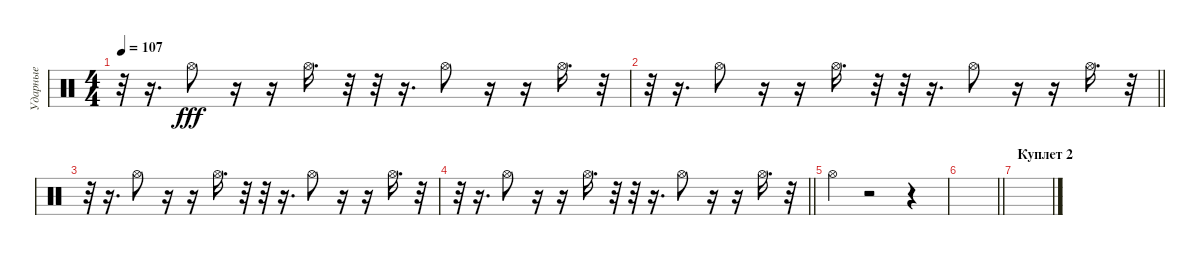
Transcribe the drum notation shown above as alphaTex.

\track ("Ударные" "Ударные") {solo instrument percussion}
\staff {score}
\articulation defaults
\ts (4 4)
\tempo 107
\clef neutral
\ks c
r.32{dy fff} r.16{d} "Hi-Hat (open)".8 r.16 r.16 "Hi-Hat (open)".16{d} r.32 r.32 r.16{d} "Hi-Hat (open)".8 r.16 r.16 "Hi-Hat (open)".16{d} r.32 |
\barLineRight lightlight
r.32 r.16{d} "Hi-Hat (open)".8 r.16 r.16 "Hi-Hat (open)".16{d} r.32 r.32 r.16{d} "Hi-Hat (open)".8 r.16 r.16 "Hi-Hat (open)".16{d} r.32 |
r.32 r.16{d} "Hi-Hat (open)".8 r.16 r.16 "Hi-Hat (open)".16{d} r.32 r.32 r.16{d} "Hi-Hat (open)".8 r.16 r.16 "Hi-Hat (open)".16{d} r.32 |
\barLineRight lightlight
r.32 r.16{d} "Hi-Hat (open)".8 r.16 r.16 "Hi-Hat (open)".16{d} r.32 r.32 r.16{d} "Hi-Hat (open)".8 r.16 r.16 "Hi-Hat (open)".16{d} r.32 |
"Hi-Hat (open)".4 r.2 r.4 |
\barLineRight lightlight
|
\section ("" "Куплет 2")
